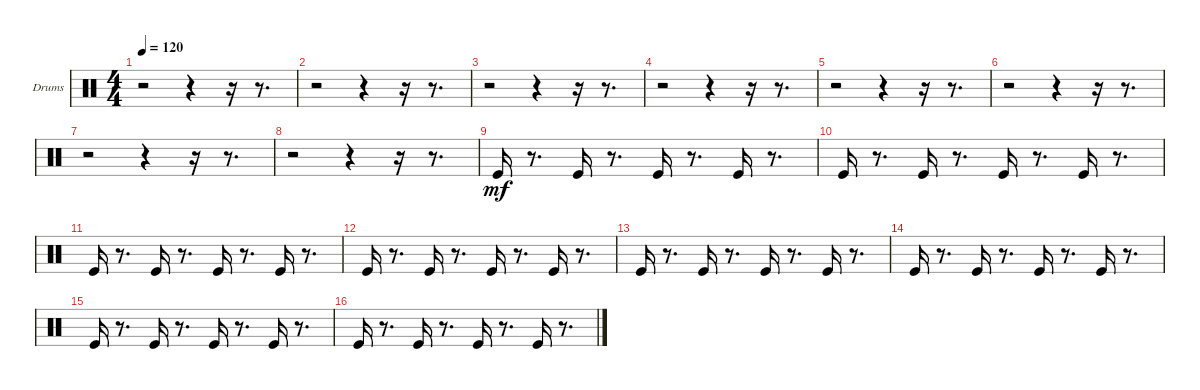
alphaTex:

\bracketExtendMode groupsimilarinstruments
\firstSystemTrackNameOrientation horizontal
\otherSystemsTrackNameOrientation horizontal
\track ("Drums" "Drums") {instrument percussion}
\staff {score}
\articulation defaults
\ts (4 4)
\tempo 120
\clef neutral
\ks c
r.2{dy mf} r.4 r.16 r.8{d} |
r.2 r.4 r.16 r.8{d} |
r.2 r.4 r.16 r.8{d} |
r.2 r.4 r.16 r.8{d} |
r.2 r.4 r.16 r.8{d} |
r.2 r.4 r.16 r.8{d} |
r.2 r.4 r.16 r.8{d} |
r.2 r.4 r.16 r.8{d} |
"Kick (hit)".16 r.8{d} "Kick (hit)".16 r.8{d} "Kick (hit)".16 r.8{d} "Kick (hit)".16 r.8{d} |
"Kick (hit)".16 r.8{d} "Kick (hit)".16 r.8{d} "Kick (hit)".16 r.8{d} "Kick (hit)".16 r.8{d} |
"Kick (hit)".16 r.8{d} "Kick (hit)".16 r.8{d} "Kick (hit)".16 r.8{d} "Kick (hit)".16 r.8{d} |
"Kick (hit)".16 r.8{d} "Kick (hit)".16 r.8{d} "Kick (hit)".16 r.8{d} "Kick (hit)".16 r.8{d} |
"Kick (hit)".16 r.8{d} "Kick (hit)".16 r.8{d} "Kick (hit)".16 r.8{d} "Kick (hit)".16 r.8{d} |
"Kick (hit)".16 r.8{d} "Kick (hit)".16 r.8{d} "Kick (hit)".16 r.8{d} "Kick (hit)".16 r.8{d} |
"Kick (hit)".16 r.8{d} "Kick (hit)".16 r.8{d} "Kick (hit)".16 r.8{d} "Kick (hit)".16 r.8{d} |
"Kick (hit)".16 r.8{d} "Kick (hit)".16 r.8{d} "Kick (hit)".16 r.8{d} "Kick (hit)".16 r.8{d}
